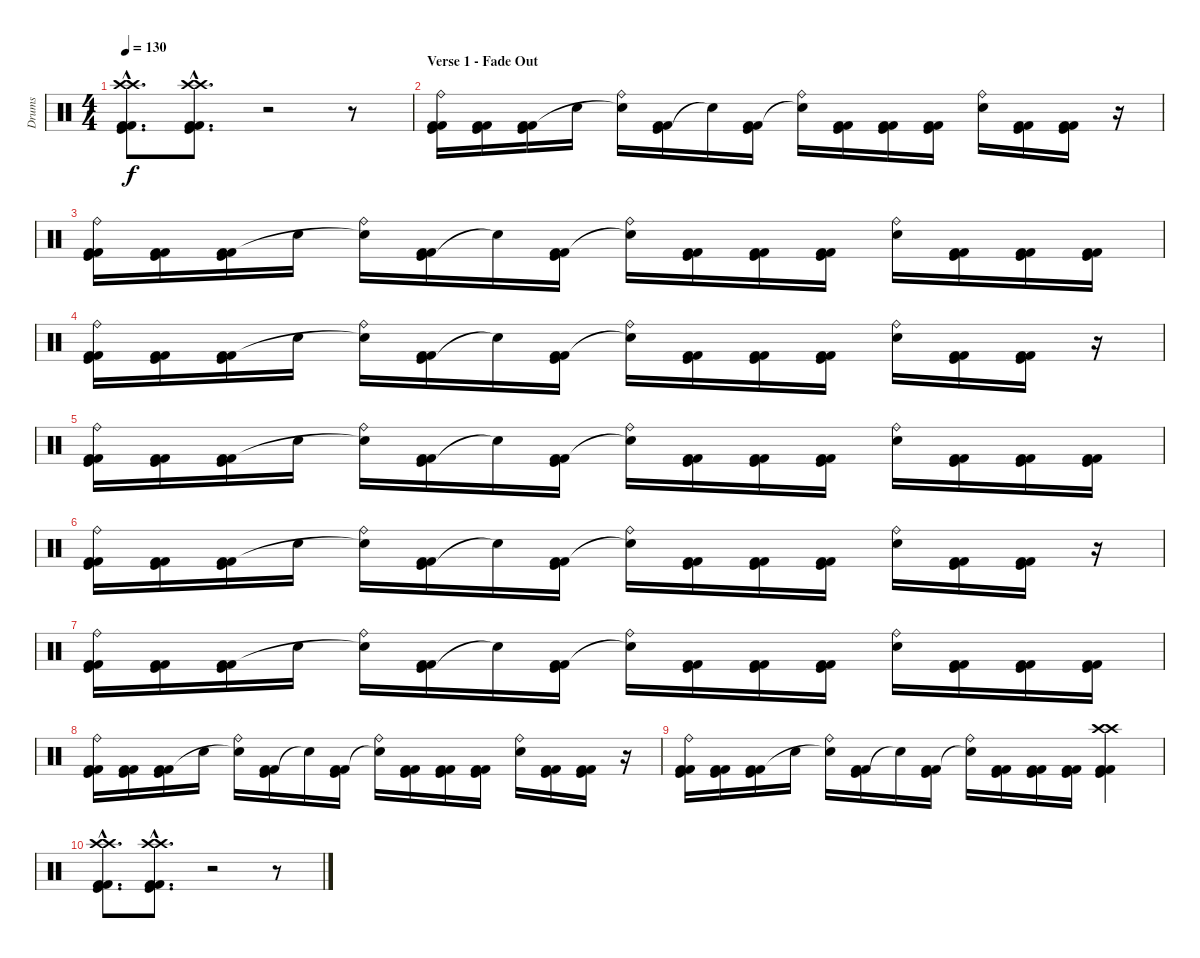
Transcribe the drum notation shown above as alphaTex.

\track ("Drums" "Drums") {instrument percussion}
\staff {score}
\articulation defaults
\ts (4 4)
\tempo 130
\clef neutral
\ks c
("Crash high (hit)"{hac} "Crash high (hit)"{hac} "Kick (hit)"{hac} "Kick (hit) 2"{hac} "Kick (hit) 2"{hac}).8{d dy f} ("Crash high (hit)"{hac} "Crash high (hit)"{hac} "Kick (hit)"{hac} "Kick (hit) 2"{hac} "Kick (hit) 2"{hac}).8{d} r.2 r.8 |
\section ("" "Verse 1 - Fade Out")
("Ride (bell)" "Kick (hit)" "Kick (hit) 2" "Kick (hit) 2").16 ("Kick (hit)" "Kick (hit) 2" "Kick (hit) 2").16 ("Kick (hit)" "Kick (hit) 2" "Kick (hit) 2").16 "Electric Snare (hit)".16 ("Ride (bell)" "Snare (hit)"{t}).16 ("Kick (hit)" "Kick (hit) 2" "Kick (hit) 2").16 "Snare (hit)"{t}.16 ("Kick (hit)" "Kick (hit) 2" "Kick (hit) 2").16 ("Ride (bell)" "Snare (hit)"{t}).16 ("Kick (hit)" "Kick (hit) 2" "Kick (hit) 2").16 ("Kick (hit)" "Kick (hit) 2" "Kick (hit) 2").16 ("Kick (hit)" "Kick (hit) 2" "Kick (hit) 2").16 ("Ride (bell)" "Electric Snare (hit)").16 ("Kick (hit)" "Kick (hit) 2" "Kick (hit) 2").16 ("Kick (hit)" "Kick (hit) 2" "Kick (hit) 2").16 r.16 |
("Ride (bell)" "Kick (hit)" "Kick (hit) 2" "Kick (hit) 2").16 ("Kick (hit)" "Kick (hit) 2" "Kick (hit) 2").16 ("Kick (hit)" "Kick (hit) 2" "Kick (hit) 2").16 "Electric Snare (hit)".16 ("Ride (bell)" "Snare (hit)"{t}).16 ("Kick (hit)" "Kick (hit) 2" "Kick (hit) 2").16 "Snare (hit)"{t}.16 ("Kick (hit)" "Kick (hit) 2" "Kick (hit) 2").16 ("Ride (bell)" "Snare (hit)"{t}).16 ("Kick (hit)" "Kick (hit) 2" "Kick (hit) 2").16 ("Kick (hit)" "Kick (hit) 2" "Kick (hit) 2").16 ("Kick (hit)" "Kick (hit) 2" "Kick (hit) 2").16 ("Ride (bell)" "Electric Snare (hit)").16 ("Kick (hit)" "Kick (hit) 2" "Kick (hit) 2").16 ("Kick (hit)" "Kick (hit) 2" "Kick (hit) 2").16 ("Kick (hit)" "Kick (hit) 2" "Kick (hit) 2").16 |
("Ride (bell)" "Kick (hit)" "Kick (hit) 2" "Kick (hit) 2").16 ("Kick (hit)" "Kick (hit) 2" "Kick (hit) 2").16 ("Kick (hit)" "Kick (hit) 2" "Kick (hit) 2").16 "Electric Snare (hit)".16 ("Ride (bell)" "Snare (hit)"{t}).16 ("Kick (hit)" "Kick (hit) 2" "Kick (hit) 2").16 "Snare (hit)"{t}.16 ("Kick (hit)" "Kick (hit) 2" "Kick (hit) 2").16 ("Ride (bell)" "Snare (hit)"{t}).16 ("Kick (hit)" "Kick (hit) 2" "Kick (hit) 2").16 ("Kick (hit)" "Kick (hit) 2" "Kick (hit) 2").16 ("Kick (hit)" "Kick (hit) 2" "Kick (hit) 2").16 ("Ride (bell)" "Electric Snare (hit)").16 ("Kick (hit)" "Kick (hit) 2" "Kick (hit) 2").16 ("Kick (hit)" "Kick (hit) 2" "Kick (hit) 2").16 r.16 |
("Ride (bell)" "Kick (hit)" "Kick (hit) 2" "Kick (hit) 2").16 ("Kick (hit)" "Kick (hit) 2" "Kick (hit) 2").16 ("Kick (hit)" "Kick (hit) 2" "Kick (hit) 2").16 "Electric Snare (hit)".16 ("Ride (bell)" "Snare (hit)"{t}).16 ("Kick (hit)" "Kick (hit) 2" "Kick (hit) 2").16 "Snare (hit)"{t}.16 ("Kick (hit)" "Kick (hit) 2" "Kick (hit) 2").16 ("Ride (bell)" "Snare (hit)"{t}).16 ("Kick (hit)" "Kick (hit) 2" "Kick (hit) 2").16 ("Kick (hit)" "Kick (hit) 2" "Kick (hit) 2").16 ("Kick (hit)" "Kick (hit) 2" "Kick (hit) 2").16 ("Ride (bell)" "Electric Snare (hit)").16 ("Kick (hit)" "Kick (hit) 2" "Kick (hit) 2").16 ("Kick (hit)" "Kick (hit) 2" "Kick (hit) 2").16 ("Kick (hit)" "Kick (hit) 2" "Kick (hit) 2").16 |
("Ride (bell)" "Kick (hit)" "Kick (hit) 2" "Kick (hit) 2").16 ("Kick (hit)" "Kick (hit) 2" "Kick (hit) 2").16 ("Kick (hit)" "Kick (hit) 2" "Kick (hit) 2").16 "Electric Snare (hit)".16 ("Ride (bell)" "Snare (hit)"{t}).16 ("Kick (hit)" "Kick (hit) 2" "Kick (hit) 2").16 "Snare (hit)"{t}.16 ("Kick (hit)" "Kick (hit) 2" "Kick (hit) 2").16 ("Ride (bell)" "Snare (hit)"{t}).16 ("Kick (hit)" "Kick (hit) 2" "Kick (hit) 2").16 ("Kick (hit)" "Kick (hit) 2" "Kick (hit) 2").16 ("Kick (hit)" "Kick (hit) 2" "Kick (hit) 2").16 ("Ride (bell)" "Electric Snare (hit)").16 ("Kick (hit)" "Kick (hit) 2" "Kick (hit) 2").16 ("Kick (hit)" "Kick (hit) 2" "Kick (hit) 2").16 r.16 |
("Ride (bell)" "Kick (hit)" "Kick (hit) 2" "Kick (hit) 2").16 ("Kick (hit)" "Kick (hit) 2" "Kick (hit) 2").16 ("Kick (hit)" "Kick (hit) 2" "Kick (hit) 2").16 "Electric Snare (hit)".16 ("Ride (bell)" "Snare (hit)"{t}).16 ("Kick (hit)" "Kick (hit) 2" "Kick (hit) 2").16 "Snare (hit)"{t}.16 ("Kick (hit)" "Kick (hit) 2" "Kick (hit) 2").16 ("Ride (bell)" "Snare (hit)"{t}).16 ("Kick (hit)" "Kick (hit) 2" "Kick (hit) 2").16 ("Kick (hit)" "Kick (hit) 2" "Kick (hit) 2").16 ("Kick (hit)" "Kick (hit) 2" "Kick (hit) 2").16 ("Ride (bell)" "Electric Snare (hit)").16 ("Kick (hit)" "Kick (hit) 2" "Kick (hit) 2").16 ("Kick (hit)" "Kick (hit) 2" "Kick (hit) 2").16 ("Kick (hit)" "Kick (hit) 2" "Kick (hit) 2").16 |
("Ride (bell)" "Kick (hit)" "Kick (hit) 2" "Kick (hit) 2").16 ("Kick (hit)" "Kick (hit) 2" "Kick (hit) 2").16 ("Kick (hit)" "Kick (hit) 2" "Kick (hit) 2").16 "Electric Snare (hit)".16 ("Ride (bell)" "Snare (hit)"{t}).16 ("Kick (hit)" "Kick (hit) 2" "Kick (hit) 2").16 "Snare (hit)"{t}.16 ("Kick (hit)" "Kick (hit) 2" "Kick (hit) 2").16 ("Ride (bell)" "Snare (hit)"{t}).16 ("Kick (hit)" "Kick (hit) 2" "Kick (hit) 2").16 ("Kick (hit)" "Kick (hit) 2" "Kick (hit) 2").16 ("Kick (hit)" "Kick (hit) 2" "Kick (hit) 2").16 ("Ride (bell)" "Electric Snare (hit)").16 ("Kick (hit)" "Kick (hit) 2" "Kick (hit) 2").16 ("Kick (hit)" "Kick (hit) 2" "Kick (hit) 2").16 r.16 |
("Ride (bell)" "Kick (hit)" "Kick (hit) 2" "Kick (hit) 2").16 ("Kick (hit)" "Kick (hit) 2" "Kick (hit) 2").16 ("Kick (hit)" "Kick (hit) 2" "Kick (hit) 2").16 "Electric Snare (hit)".16 ("Ride (bell)" "Snare (hit)"{t}).16 ("Kick (hit)" "Kick (hit) 2" "Kick (hit) 2").16 "Snare (hit)"{t}.16 ("Kick (hit)" "Kick (hit) 2" "Kick (hit) 2").16 ("Ride (bell)" "Snare (hit)"{t}).16 ("Kick (hit)" "Kick (hit) 2" "Kick (hit) 2").16 ("Kick (hit)" "Kick (hit) 2" "Kick (hit) 2").16 ("Kick (hit)" "Kick (hit) 2" "Kick (hit) 2").16 ("Crash high (hit)" "Crash high (hit)" "Kick (hit)" "Kick (hit) 2" "Kick (hit) 2").4 |
("Crash high (hit)"{hac} "Crash high (hit)"{hac} "Kick (hit)"{hac} "Kick (hit) 2"{hac} "Kick (hit) 2"{hac}).8{d} ("Crash high (hit)"{hac} "Crash high (hit)"{hac} "Kick (hit)"{hac} "Kick (hit) 2"{hac} "Kick (hit) 2"{hac}).8{d} r.2 r.8
